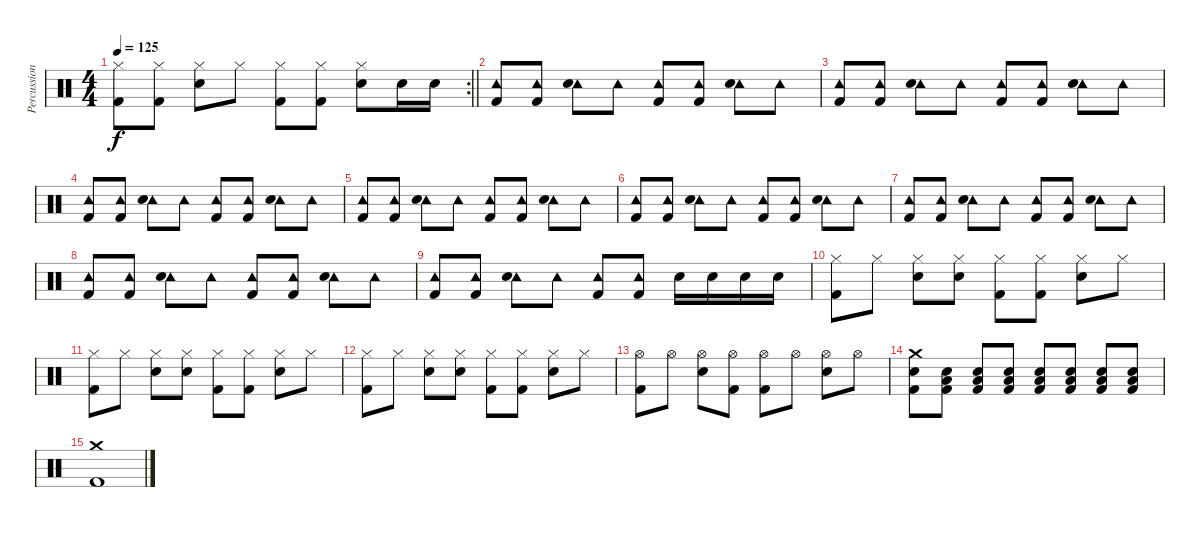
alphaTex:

\track ("Percussions" "Percussion") {instrument percussion}
\staff {score}
\articulation defaults
\rc 2
\ts (4 4)
\tempo 125
\clef neutral
\barLineRight lightlight
\ks c
("Hi-Hat (closed)" "Kick (hit) 2").8{dy f} ("Hi-Hat (closed)" "Kick (hit) 2").8 ("Hi-Hat (closed)" "Electric Snare (hit)").8 "Hi-Hat (closed)".8 ("Hi-Hat (closed)" "Kick (hit) 2").8 ("Hi-Hat (closed)" "Kick (hit) 2").8 ("Hi-Hat (closed)" "Electric Snare (hit)").8 "Electric Snare (hit)".16 "Electric Snare (hit)".16 |
("Tambourine (hit)" "Kick (hit) 2").8 ("Tambourine (hit)" "Kick (hit) 2").8 ("Tambourine (hit)" "Electric Snare (hit)").8 "Tambourine (hit)".8 ("Tambourine (hit)" "Kick (hit) 2").8 ("Tambourine (hit)" "Kick (hit) 2").8 ("Tambourine (hit)" "Electric Snare (hit)").8 "Tambourine (hit)".8 |
("Tambourine (hit)" "Kick (hit) 2").8 ("Tambourine (hit)" "Kick (hit) 2").8 ("Tambourine (hit)" "Electric Snare (hit)").8 "Tambourine (hit)".8 ("Tambourine (hit)" "Kick (hit) 2").8 ("Tambourine (hit)" "Kick (hit) 2").8 ("Tambourine (hit)" "Electric Snare (hit)").8 "Tambourine (hit)".8 |
("Tambourine (hit)" "Kick (hit) 2").8 ("Tambourine (hit)" "Kick (hit) 2").8 ("Tambourine (hit)" "Electric Snare (hit)").8 "Tambourine (hit)".8 ("Tambourine (hit)" "Kick (hit) 2").8 ("Tambourine (hit)" "Kick (hit) 2").8 ("Tambourine (hit)" "Electric Snare (hit)").8 "Tambourine (hit)".8 |
("Tambourine (hit)" "Kick (hit) 2").8 ("Tambourine (hit)" "Kick (hit) 2").8 ("Tambourine (hit)" "Electric Snare (hit)").8 "Tambourine (hit)".8 ("Tambourine (hit)" "Kick (hit) 2").8 ("Tambourine (hit)" "Kick (hit) 2").8 ("Tambourine (hit)" "Electric Snare (hit)").8 "Tambourine (hit)".8 |
("Tambourine (hit)" "Kick (hit) 2").8 ("Tambourine (hit)" "Kick (hit) 2").8 ("Tambourine (hit)" "Electric Snare (hit)").8 "Tambourine (hit)".8 ("Tambourine (hit)" "Kick (hit) 2").8 ("Tambourine (hit)" "Kick (hit) 2").8 ("Tambourine (hit)" "Electric Snare (hit)").8 "Tambourine (hit)".8 |
("Tambourine (hit)" "Kick (hit) 2").8 ("Tambourine (hit)" "Kick (hit) 2").8 ("Tambourine (hit)" "Electric Snare (hit)").8 "Tambourine (hit)".8 ("Tambourine (hit)" "Kick (hit) 2").8 ("Tambourine (hit)" "Kick (hit) 2").8 ("Tambourine (hit)" "Electric Snare (hit)").8 "Tambourine (hit)".8 |
("Tambourine (hit)" "Kick (hit) 2").8 ("Tambourine (hit)" "Kick (hit) 2").8 ("Tambourine (hit)" "Electric Snare (hit)").8 "Tambourine (hit)".8 ("Tambourine (hit)" "Kick (hit) 2").8 ("Tambourine (hit)" "Kick (hit) 2").8 ("Tambourine (hit)" "Electric Snare (hit)").8 "Tambourine (hit)".8 |
("Tambourine (hit)" "Kick (hit) 2").8 ("Tambourine (hit)" "Kick (hit) 2").8 ("Tambourine (hit)" "Electric Snare (hit)").8 "Tambourine (hit)".8 ("Tambourine (hit)" "Kick (hit) 2").8 ("Tambourine (hit)" "Kick (hit) 2").8 "Electric Snare (hit)".16 "Electric Snare (hit)".16 "Electric Snare (hit)".16 "Electric Snare (hit)".16 |
("Hi-Hat (closed)" "Kick (hit) 2").8 "Hi-Hat (closed)".8 ("Hi-Hat (closed)" "Electric Snare (hit)").8 ("Hi-Hat (closed)" "Electric Snare (hit)").8 ("Hi-Hat (closed)" "Kick (hit) 2").8 ("Hi-Hat (closed)" "Kick (hit) 2").8 ("Hi-Hat (closed)" "Electric Snare (hit)").8 "Hi-Hat (closed)".8 |
("Hi-Hat (closed)" "Kick (hit) 2").8 "Hi-Hat (closed)".8 ("Hi-Hat (closed)" "Electric Snare (hit)").8 ("Hi-Hat (closed)" "Electric Snare (hit)").8 ("Hi-Hat (closed)" "Kick (hit) 2").8 ("Hi-Hat (closed)" "Kick (hit) 2").8 ("Hi-Hat (closed)" "Electric Snare (hit)").8 "Hi-Hat (closed)".8 |
("Hi-Hat (closed)" "Kick (hit) 2").8 "Hi-Hat (closed)".8 ("Hi-Hat (closed)" "Electric Snare (hit)").8 ("Hi-Hat (closed)" "Electric Snare (hit)").8 ("Hi-Hat (closed)" "Kick (hit) 2").8 ("Hi-Hat (closed)" "Kick (hit) 2").8 ("Hi-Hat (closed)" "Electric Snare (hit)").8 "Hi-Hat (closed)".8 |
("Hi-Hat (open)" "Kick (hit) 2").8 "Hi-Hat (open)".8 ("Hi-Hat (open)" "Electric Snare (hit)").8 ("Hi-Hat (open)" "Kick (hit) 2").8 ("Hi-Hat (open)" "Kick (hit) 2").8 "Hi-Hat (open)".8 ("Hi-Hat (open)" "Electric Snare (hit)").8 "Hi-Hat (open)".8 |
("Crash medium (hit)" "Electric Snare (hit)" "Kick (hit) 2").8 ("Low Tom (hit)" "Electric Snare (hit)" "Kick (hit) 2").8 ("Low Tom (hit)" "Electric Snare (hit)" "Kick (hit) 2").8 ("Low Tom (hit)" "Electric Snare (hit)" "Kick (hit) 2").8 ("Low Tom (hit)" "Electric Snare (hit)" "Kick (hit) 2").8 ("Low Tom (hit)" "Electric Snare (hit)" "Kick (hit) 2").8 ("Low Tom (hit)" "Electric Snare (hit)" "Kick (hit) 2").8 ("Low Tom (hit)" "Electric Snare (hit)" "Kick (hit) 2").8 |
("Crash medium (hit)" "Kick (hit) 2").1
